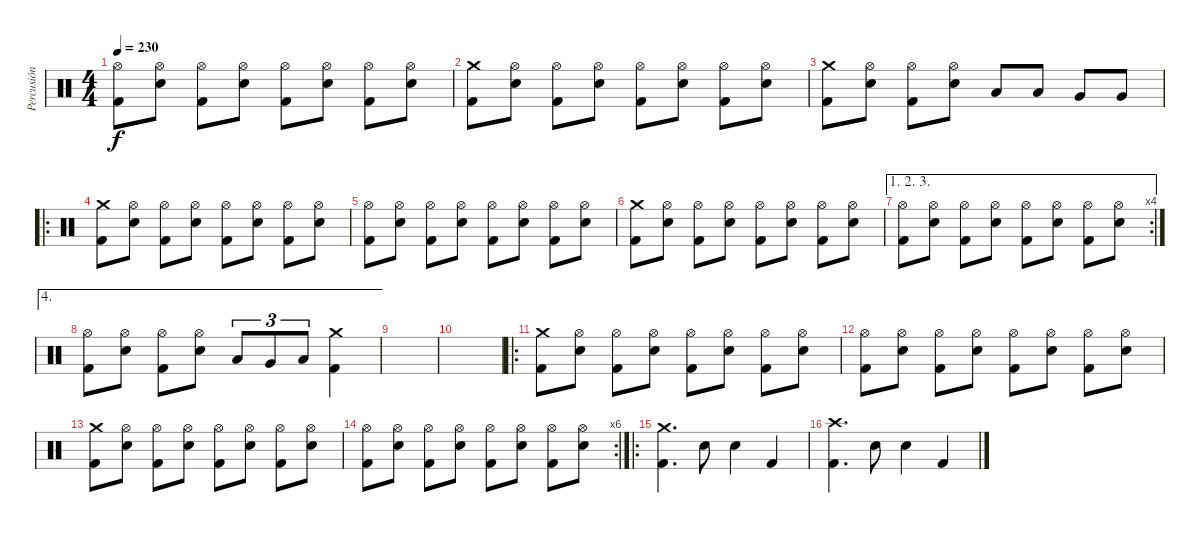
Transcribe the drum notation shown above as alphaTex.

\track ("Percusión" "Percusión") {instrument percussion}
\staff {score}
\articulation defaults
\ts (4 4)
\tempo 230
\clef neutral
\ks c
("Hi-Hat (open)" "Kick (hit) 2").8{dy f} ("Hi-Hat (open)" "Electric Snare (hit)").8 ("Hi-Hat (open)" "Kick (hit) 2").8 ("Hi-Hat (open)" "Electric Snare (hit)").8 ("Hi-Hat (open)" "Kick (hit) 2").8 ("Hi-Hat (open)" "Electric Snare (hit)").8 ("Hi-Hat (open)" "Kick (hit) 2").8 ("Hi-Hat (open)" "Electric Snare (hit)").8 |
("Crash medium (hit)" "Kick (hit) 2").8 ("Hi-Hat (open)" "Electric Snare (hit)").8 ("Hi-Hat (open)" "Kick (hit) 2").8 ("Hi-Hat (open)" "Electric Snare (hit)").8 ("Hi-Hat (open)" "Kick (hit) 2").8 ("Hi-Hat (open)" "Electric Snare (hit)").8 ("Hi-Hat (open)" "Kick (hit) 2").8 ("Hi-Hat (open)" "Electric Snare (hit)").8 |
("Crash medium (hit)" "Kick (hit) 2").8 ("Hi-Hat (open)" "Electric Snare (hit)").8 ("Hi-Hat (open)" "Kick (hit) 2").8 ("Hi-Hat (open)" "Electric Snare (hit)").8 "Low Tom (hit)".8 "Low Tom (hit)".8 "Very Low Tom (hit)".8 "Very Low Tom (hit)".8 |
\ro
("Crash medium (hit)" "Kick (hit) 2").8 ("Hi-Hat (open)" "Electric Snare (hit)").8 ("Hi-Hat (open)" "Kick (hit) 2").8 ("Hi-Hat (open)" "Electric Snare (hit)").8 ("Hi-Hat (open)" "Kick (hit) 2").8 ("Hi-Hat (open)" "Electric Snare (hit)").8 ("Hi-Hat (open)" "Kick (hit) 2").8 ("Hi-Hat (open)" "Electric Snare (hit)").8 |
("Hi-Hat (open)" "Kick (hit) 2").8 ("Hi-Hat (open)" "Electric Snare (hit)").8 ("Hi-Hat (open)" "Kick (hit) 2").8 ("Hi-Hat (open)" "Electric Snare (hit)").8 ("Hi-Hat (open)" "Kick (hit) 2").8 ("Hi-Hat (open)" "Electric Snare (hit)").8 ("Hi-Hat (open)" "Kick (hit) 2").8 ("Hi-Hat (open)" "Electric Snare (hit)").8 |
("Crash medium (hit)" "Kick (hit) 2").8 ("Hi-Hat (open)" "Electric Snare (hit)").8 ("Hi-Hat (open)" "Kick (hit) 2").8 ("Hi-Hat (open)" "Electric Snare (hit)").8 ("Hi-Hat (open)" "Kick (hit) 2").8 ("Hi-Hat (open)" "Electric Snare (hit)").8 ("Hi-Hat (open)" "Kick (hit) 2").8 ("Hi-Hat (open)" "Electric Snare (hit)").8 |
\ae (1 2 3)
\rc 4
("Hi-Hat (open)" "Kick (hit) 2").8 ("Hi-Hat (open)" "Electric Snare (hit)").8 ("Hi-Hat (open)" "Kick (hit) 2").8 ("Hi-Hat (open)" "Electric Snare (hit)").8 ("Hi-Hat (open)" "Kick (hit) 2").8 ("Hi-Hat (open)" "Electric Snare (hit)").8 ("Hi-Hat (open)" "Kick (hit) 2").8 ("Hi-Hat (open)" "Electric Snare (hit)").8 |
\ae 4
("Hi-Hat (open)" "Kick (hit) 2").8 ("Hi-Hat (open)" "Electric Snare (hit)").8 ("Hi-Hat (open)" "Kick (hit) 2").8 ("Hi-Hat (open)" "Electric Snare (hit)").8 "Low Tom (hit)".8{tu (3 2)} "Very Low Tom (hit)".8{tu (3 2)} "Low Floor Tom (hit)".8{tu (3 2)} ("Crash medium (hit)" "Kick (hit) 2").4 |
|
|
\ro
("Crash medium (hit)" "Kick (hit) 2").8 ("Hi-Hat (open)" "Electric Snare (hit)").8 ("Hi-Hat (open)" "Kick (hit) 2").8 ("Hi-Hat (open)" "Electric Snare (hit)").8 ("Hi-Hat (open)" "Kick (hit) 2").8 ("Hi-Hat (open)" "Electric Snare (hit)").8 ("Hi-Hat (open)" "Kick (hit) 2").8 ("Hi-Hat (open)" "Electric Snare (hit)").8 |
("Hi-Hat (open)" "Kick (hit) 2").8 ("Hi-Hat (open)" "Electric Snare (hit)").8 ("Hi-Hat (open)" "Kick (hit) 2").8 ("Hi-Hat (open)" "Electric Snare (hit)").8 ("Hi-Hat (open)" "Kick (hit) 2").8 ("Hi-Hat (open)" "Electric Snare (hit)").8 ("Hi-Hat (open)" "Kick (hit) 2").8 ("Hi-Hat (open)" "Electric Snare (hit)").8 |
("Crash medium (hit)" "Kick (hit) 2").8 ("Hi-Hat (open)" "Electric Snare (hit)").8 ("Hi-Hat (open)" "Kick (hit) 2").8 ("Hi-Hat (open)" "Electric Snare (hit)").8 ("Hi-Hat (open)" "Kick (hit) 2").8 ("Hi-Hat (open)" "Electric Snare (hit)").8 ("Hi-Hat (open)" "Kick (hit) 2").8 ("Hi-Hat (open)" "Electric Snare (hit)").8 |
\rc 6
("Hi-Hat (open)" "Kick (hit) 2").8 ("Hi-Hat (open)" "Electric Snare (hit)").8 ("Hi-Hat (open)" "Kick (hit) 2").8 ("Hi-Hat (open)" "Electric Snare (hit)").8 ("Hi-Hat (open)" "Kick (hit) 2").8 ("Hi-Hat (open)" "Electric Snare (hit)").8 ("Hi-Hat (open)" "Kick (hit) 2").8 ("Hi-Hat (open)" "Electric Snare (hit)").8 |
\ro
("Crash medium (hit)" "Kick (hit) 2").4{d} "Electric Snare (hit)".8 "Electric Snare (hit)".4 "Kick (hit) 2".4 |
("Crash high (hit)" "Kick (hit) 2").4{d} "Electric Snare (hit)".8 "Electric Snare (hit)".4 "Kick (hit) 2".4
